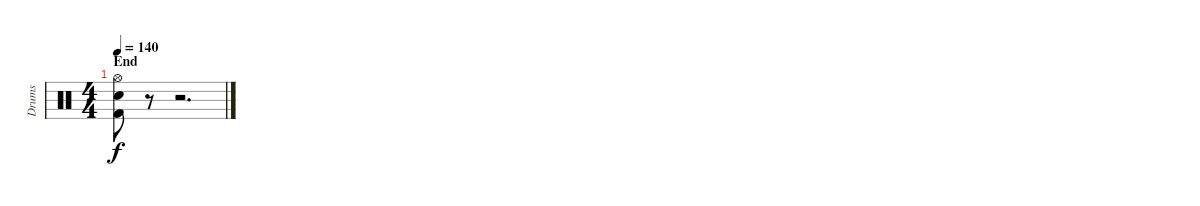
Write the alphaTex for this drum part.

\track ("Drums" "Drums") {instrument percussion}
\staff {score}
\articulation defaults
\ts (4 4)
\section ("" "End")
\tempo 140
\clef neutral
\ks c
("Hi-Hat (open)" "Snare (hit) 2" "Kick (hit) 2").8{dy f} r.8 r.2{d}
